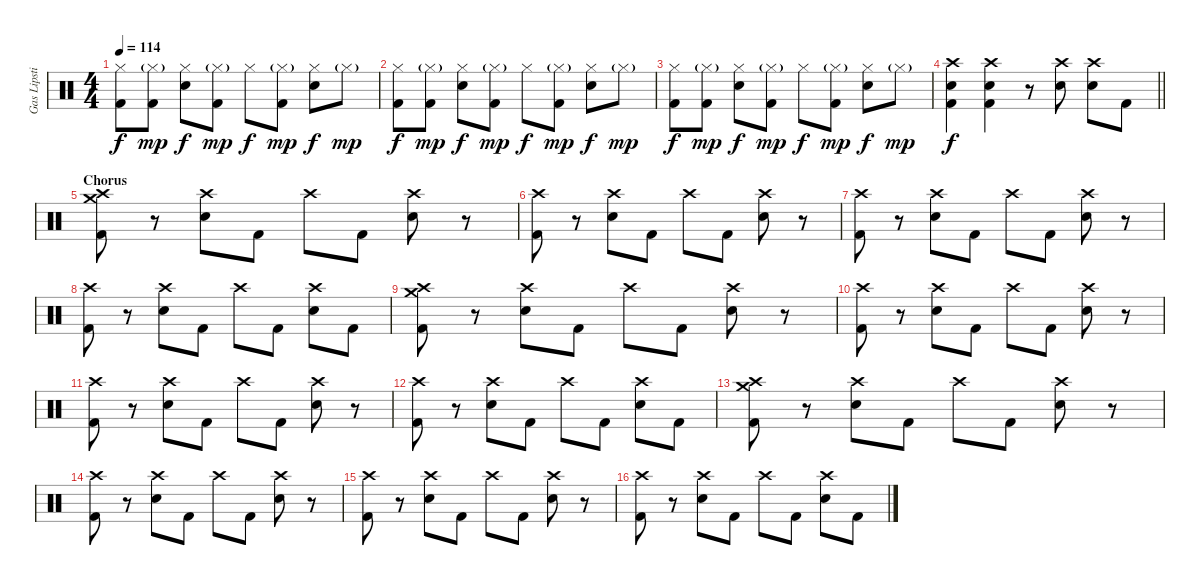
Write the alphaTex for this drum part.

\track ("Gas Lipstick (Drums)" "Gas Lipsti") {instrument percussion}
\staff {score}
\articulation defaults
\ts (4 4)
\tempo 114
\clef neutral
\ks c
("Hi-Hat (closed)" "Kick (hit) 2").8{dy f} ("Hi-Hat (closed)"{g} "Kick (hit) 2").8{dy mp} ("Hi-Hat (closed)" "Snare (hit) 2").8{dy f} ("Hi-Hat (closed)"{g} "Kick (hit) 2").8{dy mp} "Hi-Hat (closed)".8{dy f} ("Hi-Hat (closed)"{g} "Kick (hit) 2").8{dy mp} ("Hi-Hat (closed)" "Snare (hit) 2").8{dy f} "Hi-Hat (closed)"{g}.8{dy mp} |
("Hi-Hat (closed)" "Kick (hit) 2").8{dy f} ("Hi-Hat (closed)"{g} "Kick (hit) 2").8{dy mp} ("Hi-Hat (closed)" "Snare (hit) 2").8{dy f} ("Hi-Hat (closed)"{g} "Kick (hit) 2").8{dy mp} "Hi-Hat (closed)".8{dy f} ("Hi-Hat (closed)"{g} "Kick (hit) 2").8{dy mp} ("Hi-Hat (closed)" "Snare (hit) 2").8{dy f} "Hi-Hat (closed)"{g}.8{dy mp} |
("Hi-Hat (closed)" "Kick (hit) 2").8{dy f} ("Hi-Hat (closed)"{g} "Kick (hit) 2").8{dy mp} ("Hi-Hat (closed)" "Snare (hit) 2").8{dy f} ("Hi-Hat (closed)"{g} "Kick (hit) 2").8{dy mp} "Hi-Hat (closed)".8{dy f} ("Hi-Hat (closed)"{g} "Kick (hit) 2").8{dy mp} ("Hi-Hat (closed)" "Snare (hit) 2").8{dy f} "Hi-Hat (closed)"{g}.8{dy mp} |
\barLineRight lightlight
("Crash high (hit)" "Snare (hit) 2" "Kick (hit) 2").4{dy f} ("Crash high (hit)" "Snare (hit) 2" "Kick (hit) 2").4 r.8 ("Crash high (hit)" "Snare (hit) 2").8 ("Crash high (hit)" "Snare (hit) 2").8 "Kick (hit) 2".8 |
\section ("" "Chorus")
("Crash medium (hit)" "Crash high (hit)" "Kick (hit) 2").8 r.8 ("Crash high (hit)" "Snare (hit) 2").8 "Kick (hit) 2".8 "Crash high (hit)".8 "Kick (hit) 2".8 ("Crash high (hit)" "Snare (hit) 2").8 r.8 |
("Crash high (hit)" "Kick (hit) 2").8 r.8 ("Crash high (hit)" "Snare (hit) 2").8 "Kick (hit) 2".8 "Crash high (hit)".8 "Kick (hit) 2".8 ("Crash high (hit)" "Snare (hit) 2").8 r.8 |
("Crash high (hit)" "Kick (hit) 2").8 r.8 ("Crash high (hit)" "Snare (hit) 2").8 "Kick (hit) 2".8 "Crash high (hit)".8 "Kick (hit) 2".8 ("Crash high (hit)" "Snare (hit) 2").8 r.8 |
("Crash high (hit)" "Kick (hit) 2").8 r.8 ("Crash high (hit)" "Snare (hit) 2").8 "Kick (hit) 2".8 "Crash high (hit)".8 "Kick (hit) 2".8 ("Crash high (hit)" "Snare (hit) 2").8 "Kick (hit) 2".8 |
("Crash medium (hit)" "Crash high (hit)" "Kick (hit) 2").8 r.8 ("Crash high (hit)" "Snare (hit) 2").8 "Kick (hit) 2".8 "Crash high (hit)".8 "Kick (hit) 2".8 ("Crash high (hit)" "Snare (hit) 2").8 r.8 |
("Crash high (hit)" "Kick (hit) 2").8 r.8 ("Crash high (hit)" "Snare (hit) 2").8 "Kick (hit) 2".8 "Crash high (hit)".8 "Kick (hit) 2".8 ("Crash high (hit)" "Snare (hit) 2").8 r.8 |
("Crash high (hit)" "Kick (hit) 2").8 r.8 ("Crash high (hit)" "Snare (hit) 2").8 "Kick (hit) 2".8 "Crash high (hit)".8 "Kick (hit) 2".8 ("Crash high (hit)" "Snare (hit) 2").8 r.8 |
("Crash high (hit)" "Kick (hit) 2").8 r.8 ("Crash high (hit)" "Snare (hit) 2").8 "Kick (hit) 2".8 "Crash high (hit)".8 "Kick (hit) 2".8 ("Crash high (hit)" "Snare (hit) 2").8 "Kick (hit) 2".8 |
("Crash medium (hit)" "Crash high (hit)" "Kick (hit) 2").8 r.8 ("Crash high (hit)" "Snare (hit) 2").8 "Kick (hit) 2".8 "Crash high (hit)".8 "Kick (hit) 2".8 ("Crash high (hit)" "Snare (hit) 2").8 r.8 |
("Crash high (hit)" "Kick (hit) 2").8 r.8 ("Crash high (hit)" "Snare (hit) 2").8 "Kick (hit) 2".8 "Crash high (hit)".8 "Kick (hit) 2".8 ("Crash high (hit)" "Snare (hit) 2").8 r.8 |
("Crash high (hit)" "Kick (hit) 2").8 r.8 ("Crash high (hit)" "Snare (hit) 2").8 "Kick (hit) 2".8 "Crash high (hit)".8 "Kick (hit) 2".8 ("Crash high (hit)" "Snare (hit) 2").8 r.8 |
("Crash high (hit)" "Kick (hit) 2").8 r.8 ("Crash high (hit)" "Snare (hit) 2").8 "Kick (hit) 2".8 "Crash high (hit)".8 "Kick (hit) 2".8 ("Crash high (hit)" "Snare (hit) 2").8 "Kick (hit) 2".8
